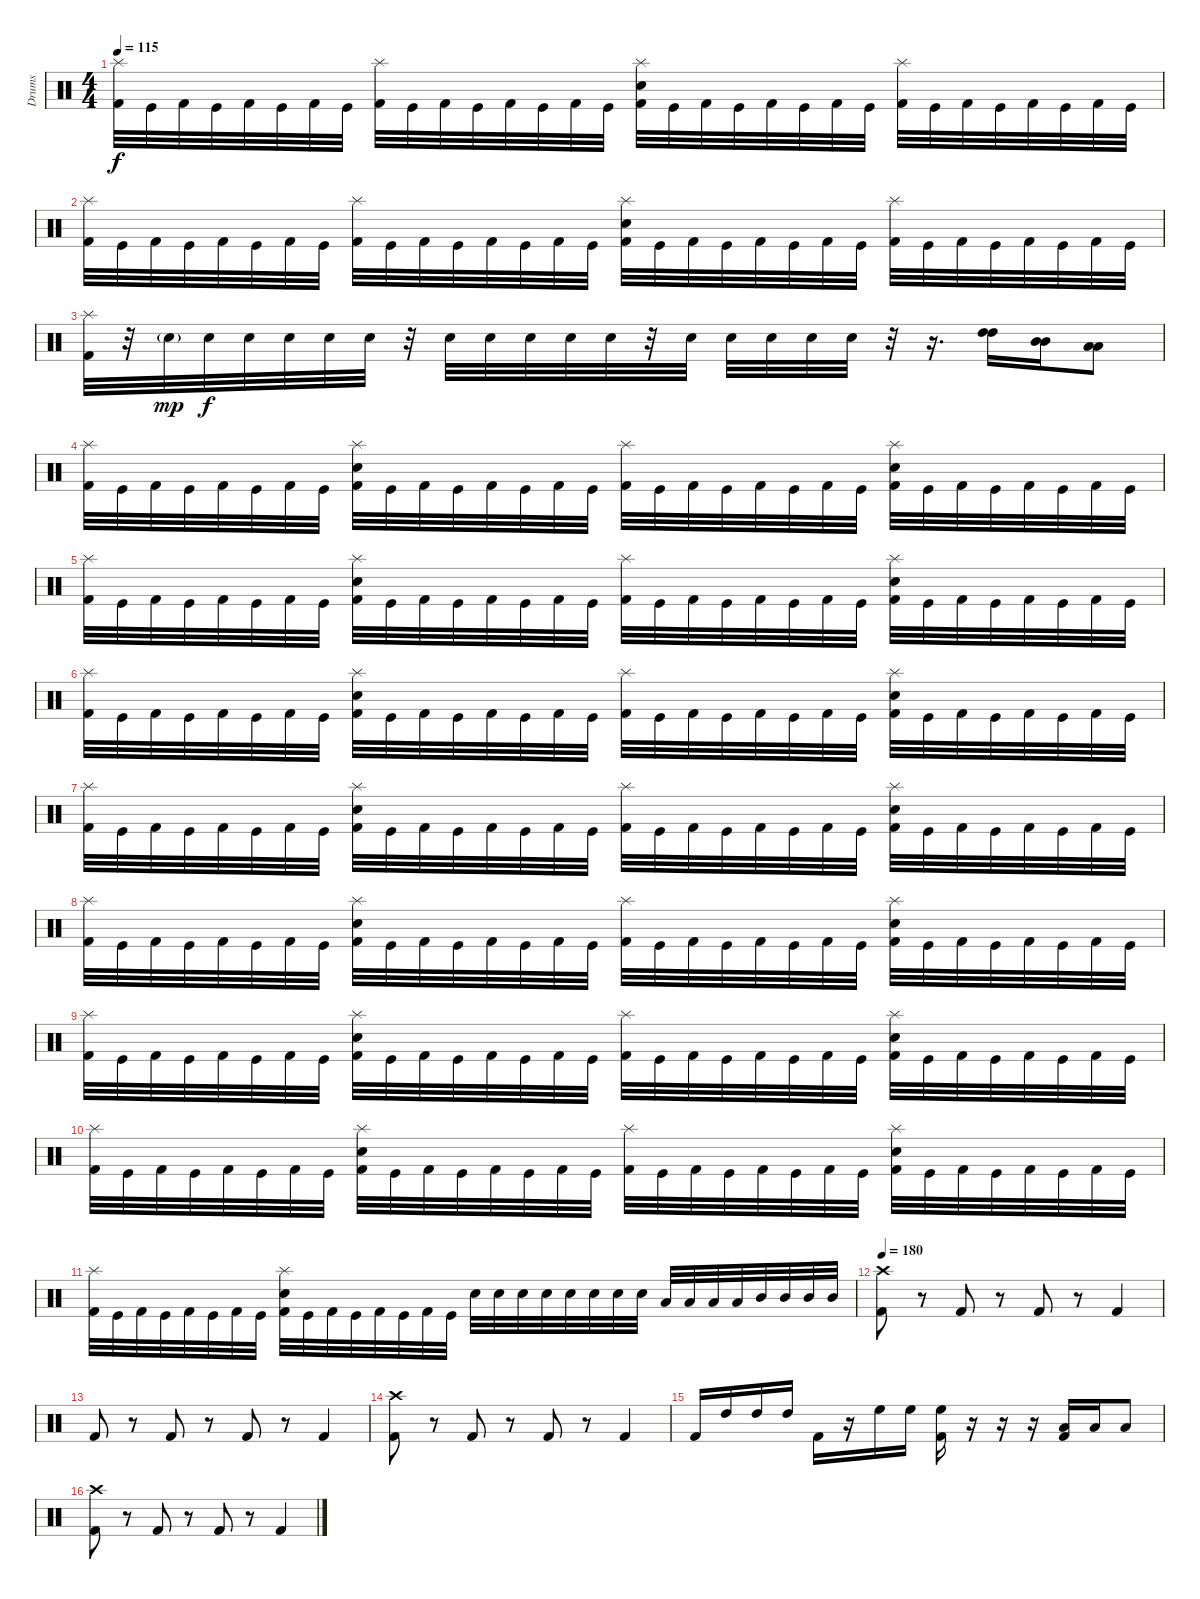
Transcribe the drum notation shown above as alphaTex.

\track ("Drums" "Drums") {instrument percussion}
\staff {score}
\articulation defaults
\ts (4 4)
\tempo 115
\clef neutral
\ks c
("Splash (hit)" "Kick (hit) 2").32{dy f} "Kick (hit)".32 "Kick (hit) 2".32 "Kick (hit)".32 "Kick (hit) 2".32 "Kick (hit)".32 "Kick (hit) 2".32 "Kick (hit)".32 ("Splash (hit)" "Kick (hit) 2").32 "Kick (hit)".32 "Kick (hit) 2".32 "Kick (hit)".32 "Kick (hit) 2".32 "Kick (hit)".32 "Kick (hit) 2".32 "Kick (hit)".32 ("Splash (hit)" "Electric Snare (hit)" "Kick (hit) 2").32 "Kick (hit)".32 "Kick (hit) 2".32 "Kick (hit)".32 "Kick (hit) 2".32 "Kick (hit)".32 "Kick (hit) 2".32 "Kick (hit)".32 ("Splash (hit)" "Kick (hit) 2").32 "Kick (hit)".32 "Kick (hit) 2".32 "Kick (hit)".32 "Kick (hit) 2".32 "Kick (hit)".32 "Kick (hit) 2".32 "Kick (hit)".32 |
("Splash (hit)" "Kick (hit) 2").32 "Kick (hit)".32 "Kick (hit) 2".32 "Kick (hit)".32 "Kick (hit) 2".32 "Kick (hit)".32 "Kick (hit) 2".32 "Kick (hit)".32 ("Splash (hit)" "Kick (hit) 2").32 "Kick (hit)".32 "Kick (hit) 2".32 "Kick (hit)".32 "Kick (hit) 2".32 "Kick (hit)".32 "Kick (hit) 2".32 "Kick (hit)".32 ("Splash (hit)" "Electric Snare (hit)" "Kick (hit) 2").32 "Kick (hit)".32 "Kick (hit) 2".32 "Kick (hit)".32 "Kick (hit) 2".32 "Kick (hit)".32 "Kick (hit) 2".32 "Kick (hit)".32 ("Splash (hit)" "Kick (hit) 2").32 "Kick (hit)".32 "Kick (hit) 2".32 "Kick (hit)".32 "Kick (hit) 2".32 "Kick (hit)".32 "Kick (hit) 2".32 "Kick (hit)".32 |
("Splash (hit)" "Kick (hit) 2").32 r.32 "Electric Snare (hit)"{g}.32{dy mp} "Electric Snare (hit)".32{dy f} "Electric Snare (hit)".32 "Electric Snare (hit)".32 "Electric Snare (hit)".32 "Electric Snare (hit)".32 r.32 "Electric Snare (hit)".32 "Electric Snare (hit)".32 "Electric Snare (hit)".32 "Electric Snare (hit)".32 "Electric Snare (hit)".32 r.32 "Electric Snare (hit)".32 "Electric Snare (hit)".32 "Electric Snare (hit)".32 "Electric Snare (hit)".32 "Electric Snare (hit)".32 r.32 r.16{d} ("High Tom (hit)" "High Tom (hit)").16 ("Mid Tom (hit)" "Mid Tom (hit)").16 ("Low Tom (hit)" "Low Tom (hit)").8 |
("Splash (hit)" "Kick (hit) 2").32 "Kick (hit)".32 "Kick (hit) 2".32 "Kick (hit)".32 "Kick (hit) 2".32 "Kick (hit)".32 "Kick (hit) 2".32 "Kick (hit)".32 ("Splash (hit)" "Electric Snare (hit)" "Kick (hit) 2").32 "Kick (hit)".32 "Kick (hit) 2".32 "Kick (hit)".32 "Kick (hit) 2".32 "Kick (hit)".32 "Kick (hit) 2".32 "Kick (hit)".32 ("Splash (hit)" "Kick (hit) 2").32 "Kick (hit)".32 "Kick (hit) 2".32 "Kick (hit)".32 "Kick (hit) 2".32 "Kick (hit)".32 "Kick (hit) 2".32 "Kick (hit)".32 ("Splash (hit)" "Electric Snare (hit)" "Kick (hit) 2").32 "Kick (hit)".32 "Kick (hit) 2".32 "Kick (hit)".32 "Kick (hit) 2".32 "Kick (hit)".32 "Kick (hit) 2".32 "Kick (hit)".32 |
("Splash (hit)" "Kick (hit) 2").32 "Kick (hit)".32 "Kick (hit) 2".32 "Kick (hit)".32 "Kick (hit) 2".32 "Kick (hit)".32 "Kick (hit) 2".32 "Kick (hit)".32 ("Splash (hit)" "Electric Snare (hit)" "Kick (hit) 2").32 "Kick (hit)".32 "Kick (hit) 2".32 "Kick (hit)".32 "Kick (hit) 2".32 "Kick (hit)".32 "Kick (hit) 2".32 "Kick (hit)".32 ("Splash (hit)" "Kick (hit) 2").32 "Kick (hit)".32 "Kick (hit) 2".32 "Kick (hit)".32 "Kick (hit) 2".32 "Kick (hit)".32 "Kick (hit) 2".32 "Kick (hit)".32 ("Splash (hit)" "Electric Snare (hit)" "Kick (hit) 2").32 "Kick (hit)".32 "Kick (hit) 2".32 "Kick (hit)".32 "Kick (hit) 2".32 "Kick (hit)".32 "Kick (hit) 2".32 "Kick (hit)".32 |
("Splash (hit)" "Kick (hit) 2").32 "Kick (hit)".32 "Kick (hit) 2".32 "Kick (hit)".32 "Kick (hit) 2".32 "Kick (hit)".32 "Kick (hit) 2".32 "Kick (hit)".32 ("Splash (hit)" "Electric Snare (hit)" "Kick (hit) 2").32 "Kick (hit)".32 "Kick (hit) 2".32 "Kick (hit)".32 "Kick (hit) 2".32 "Kick (hit)".32 "Kick (hit) 2".32 "Kick (hit)".32 ("Splash (hit)" "Kick (hit) 2").32 "Kick (hit)".32 "Kick (hit) 2".32 "Kick (hit)".32 "Kick (hit) 2".32 "Kick (hit)".32 "Kick (hit) 2".32 "Kick (hit)".32 ("Splash (hit)" "Electric Snare (hit)" "Kick (hit) 2").32 "Kick (hit)".32 "Kick (hit) 2".32 "Kick (hit)".32 "Kick (hit) 2".32 "Kick (hit)".32 "Kick (hit) 2".32 "Kick (hit)".32 |
("Splash (hit)" "Kick (hit) 2").32 "Kick (hit)".32 "Kick (hit) 2".32 "Kick (hit)".32 "Kick (hit) 2".32 "Kick (hit)".32 "Kick (hit) 2".32 "Kick (hit)".32 ("Splash (hit)" "Electric Snare (hit)" "Kick (hit) 2").32 "Kick (hit)".32 "Kick (hit) 2".32 "Kick (hit)".32 "Kick (hit) 2".32 "Kick (hit)".32 "Kick (hit) 2".32 "Kick (hit)".32 ("Splash (hit)" "Kick (hit) 2").32 "Kick (hit)".32 "Kick (hit) 2".32 "Kick (hit)".32 "Kick (hit) 2".32 "Kick (hit)".32 "Kick (hit) 2".32 "Kick (hit)".32 ("Splash (hit)" "Electric Snare (hit)" "Kick (hit) 2").32 "Kick (hit)".32 "Kick (hit) 2".32 "Kick (hit)".32 "Kick (hit) 2".32 "Kick (hit)".32 "Kick (hit) 2".32 "Kick (hit)".32 |
("Splash (hit)" "Kick (hit) 2").32 "Kick (hit)".32 "Kick (hit) 2".32 "Kick (hit)".32 "Kick (hit) 2".32 "Kick (hit)".32 "Kick (hit) 2".32 "Kick (hit)".32 ("Splash (hit)" "Electric Snare (hit)" "Kick (hit) 2").32 "Kick (hit)".32 "Kick (hit) 2".32 "Kick (hit)".32 "Kick (hit) 2".32 "Kick (hit)".32 "Kick (hit) 2".32 "Kick (hit)".32 ("Splash (hit)" "Kick (hit) 2").32 "Kick (hit)".32 "Kick (hit) 2".32 "Kick (hit)".32 "Kick (hit) 2".32 "Kick (hit)".32 "Kick (hit) 2".32 "Kick (hit)".32 ("Splash (hit)" "Electric Snare (hit)" "Kick (hit) 2").32 "Kick (hit)".32 "Kick (hit) 2".32 "Kick (hit)".32 "Kick (hit) 2".32 "Kick (hit)".32 "Kick (hit) 2".32 "Kick (hit)".32 |
("Splash (hit)" "Kick (hit) 2").32 "Kick (hit)".32 "Kick (hit) 2".32 "Kick (hit)".32 "Kick (hit) 2".32 "Kick (hit)".32 "Kick (hit) 2".32 "Kick (hit)".32 ("Splash (hit)" "Electric Snare (hit)" "Kick (hit) 2").32 "Kick (hit)".32 "Kick (hit) 2".32 "Kick (hit)".32 "Kick (hit) 2".32 "Kick (hit)".32 "Kick (hit) 2".32 "Kick (hit)".32 ("Splash (hit)" "Kick (hit) 2").32 "Kick (hit)".32 "Kick (hit) 2".32 "Kick (hit)".32 "Kick (hit) 2".32 "Kick (hit)".32 "Kick (hit) 2".32 "Kick (hit)".32 ("Splash (hit)" "Electric Snare (hit)" "Kick (hit) 2").32 "Kick (hit)".32 "Kick (hit) 2".32 "Kick (hit)".32 "Kick (hit) 2".32 "Kick (hit)".32 "Kick (hit) 2".32 "Kick (hit)".32 |
("Splash (hit)" "Kick (hit) 2").32 "Kick (hit)".32 "Kick (hit) 2".32 "Kick (hit)".32 "Kick (hit) 2".32 "Kick (hit)".32 "Kick (hit) 2".32 "Kick (hit)".32 ("Splash (hit)" "Electric Snare (hit)" "Kick (hit) 2").32 "Kick (hit)".32 "Kick (hit) 2".32 "Kick (hit)".32 "Kick (hit) 2".32 "Kick (hit)".32 "Kick (hit) 2".32 "Kick (hit)".32 ("Splash (hit)" "Kick (hit) 2").32 "Kick (hit)".32 "Kick (hit) 2".32 "Kick (hit)".32 "Kick (hit) 2".32 "Kick (hit)".32 "Kick (hit) 2".32 "Kick (hit)".32 ("Splash (hit)" "Electric Snare (hit)" "Kick (hit) 2").32 "Kick (hit)".32 "Kick (hit) 2".32 "Kick (hit)".32 "Kick (hit) 2".32 "Kick (hit)".32 "Kick (hit) 2".32 "Kick (hit)".32 |
("Splash (hit)" "Kick (hit) 2").32 "Kick (hit)".32 "Kick (hit) 2".32 "Kick (hit)".32 "Kick (hit) 2".32 "Kick (hit)".32 "Kick (hit) 2".32 "Kick (hit)".32 ("Splash (hit)" "Electric Snare (hit)" "Kick (hit) 2").32 "Kick (hit)".32 "Kick (hit) 2".32 "Kick (hit)".32 "Kick (hit) 2".32 "Kick (hit)".32 "Kick (hit) 2".32 "Kick (hit)".32 "Electric Snare (hit)".32 "Electric Snare (hit)".32 "Electric Snare (hit)".32 "Electric Snare (hit)".32 "Electric Snare (hit)".32 "Electric Snare (hit)".32 "Electric Snare (hit)".32 "Electric Snare (hit)".32 "Low Tom (hit)".32 "Low Tom (hit)".32 "Low Tom (hit)".32 "Low Tom (hit)".32 "Mid Tom (hit)".32 "Mid Tom (hit)".32 "Mid Tom (hit)".32 "Mid Tom (hit)".32 |
\tempo 180
("Crash high (hit)" "Kick (hit) 2").8 r.8 "Kick (hit) 2".8 r.8 "Kick (hit) 2".8 r.8 "Kick (hit) 2".4 |
"Kick (hit) 2".8 r.8 "Kick (hit) 2".8 r.8 "Kick (hit) 2".8 r.8 "Kick (hit) 2".4 |
("Crash high (hit)" "Kick (hit) 2").8 r.8 "Kick (hit) 2".8 r.8 "Kick (hit) 2".8 r.8 "Kick (hit) 2".4 |
"Kick (hit) 2".16 "High Tom (hit)".16 "High Tom (hit)".16 "High Tom (hit)".16 "Kick (hit) 2".16 r.16 "High Floor Tom (hit)".16 "High Floor Tom (hit)".16 ("High Floor Tom (hit)" "Kick (hit) 2").16 r.16 r.16 r.16 ("Low Tom (hit)" "Kick (hit) 2").16 "Low Tom (hit)".16 "Low Tom (hit)".8 |
("Crash high (hit)" "Kick (hit) 2").8 r.8 "Kick (hit) 2".8 r.8 "Kick (hit) 2".8 r.8 "Kick (hit) 2".4
